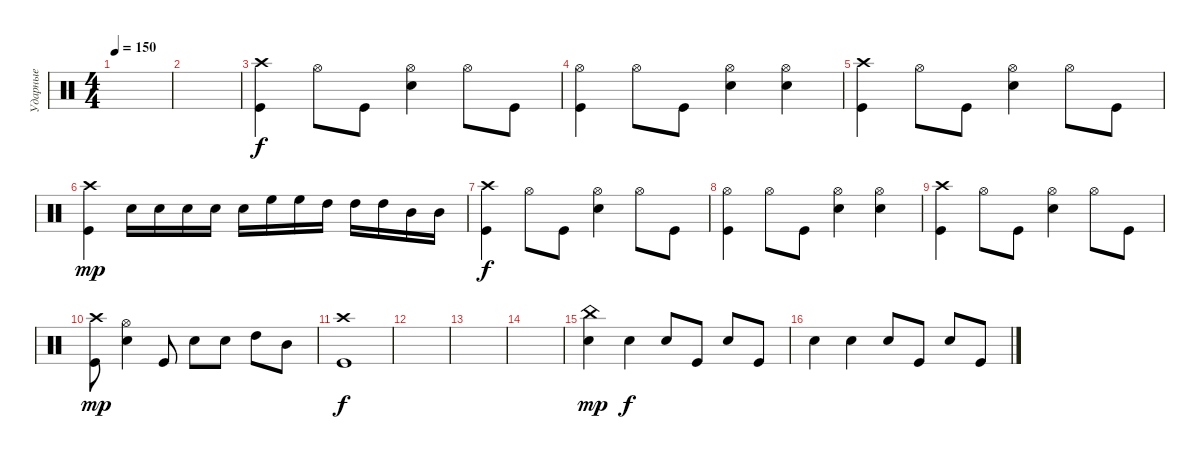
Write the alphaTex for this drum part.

\track ("Ударные" "Ударные") {instrument percussion}
\staff {score}
\articulation defaults
\ts (4 4)
\tempo 150
\clef neutral
\ks c
|
|
("Crash high (hit)" "Kick (hit)").4 "Hi-Hat (open)".8 "Kick (hit)".8 ("Hi-Hat (open)" "Snare (hit) 2").4 "Hi-Hat (open)".8 "Kick (hit)".8 |
("Hi-Hat (open)" "Kick (hit)").4 "Hi-Hat (open)".8 "Kick (hit)".8 ("Hi-Hat (open)" "Snare (hit) 2").4 ("Hi-Hat (open)" "Snare (hit) 2").4 |
("Crash high (hit)" "Kick (hit)").4 "Hi-Hat (open)".8 "Kick (hit)".8 ("Hi-Hat (open)" "Snare (hit) 2").4 "Hi-Hat (open)".8 "Kick (hit)".8 |
("Crash high (hit)" "Kick (hit)").4{dy mp} "Snare (hit) 2".16 "Snare (hit) 2".16 "Snare (hit) 2".16 "Snare (hit) 2".16 "Snare (hit) 2".16 "High Floor Tom (hit)".16 "High Floor Tom (hit)".16 "High Tom (hit)".16 "High Tom (hit)".16 "High Tom (hit)".16 "Mid Tom (hit)".16 "Mid Tom (hit)".16 |
("Crash high (hit)" "Kick (hit)").4{dy f} "Hi-Hat (open)".8 "Kick (hit)".8 ("Hi-Hat (open)" "Snare (hit) 2").4 "Hi-Hat (open)".8 "Kick (hit)".8 |
("Hi-Hat (open)" "Kick (hit)").4 "Hi-Hat (open)".8 "Kick (hit)".8 ("Hi-Hat (open)" "Snare (hit) 2").4 ("Hi-Hat (open)" "Snare (hit) 2").4 |
("Crash high (hit)" "Kick (hit)").4 "Hi-Hat (open)".8 "Kick (hit)".8 ("Hi-Hat (open)" "Snare (hit) 2").4 "Hi-Hat (open)".8 "Kick (hit)".8 |
("Crash high (hit)" "Kick (hit)").8{dy mp} ("Hi-Hat (open)" "Snare (hit) 2").4 "Kick (hit)".8 "Snare (hit) 2".8 "Snare (hit) 2".8 "High Tom (hit)".8 "Mid Tom (hit)".8 |
("Crash high (hit)" "Kick (hit)").1{dy f} |
|
|
|
("China (hit)" "Snare (hit) 2").4{dy mp} "Snare (hit) 2".4{dy f} "Snare (hit) 2".8 "Kick (hit)".8 "Snare (hit) 2".8 "Kick (hit)".8 |
"Snare (hit) 2".4 "Snare (hit) 2".4 "Snare (hit) 2".8 "Kick (hit)".8 "Snare (hit) 2".8 "Kick (hit)".8
